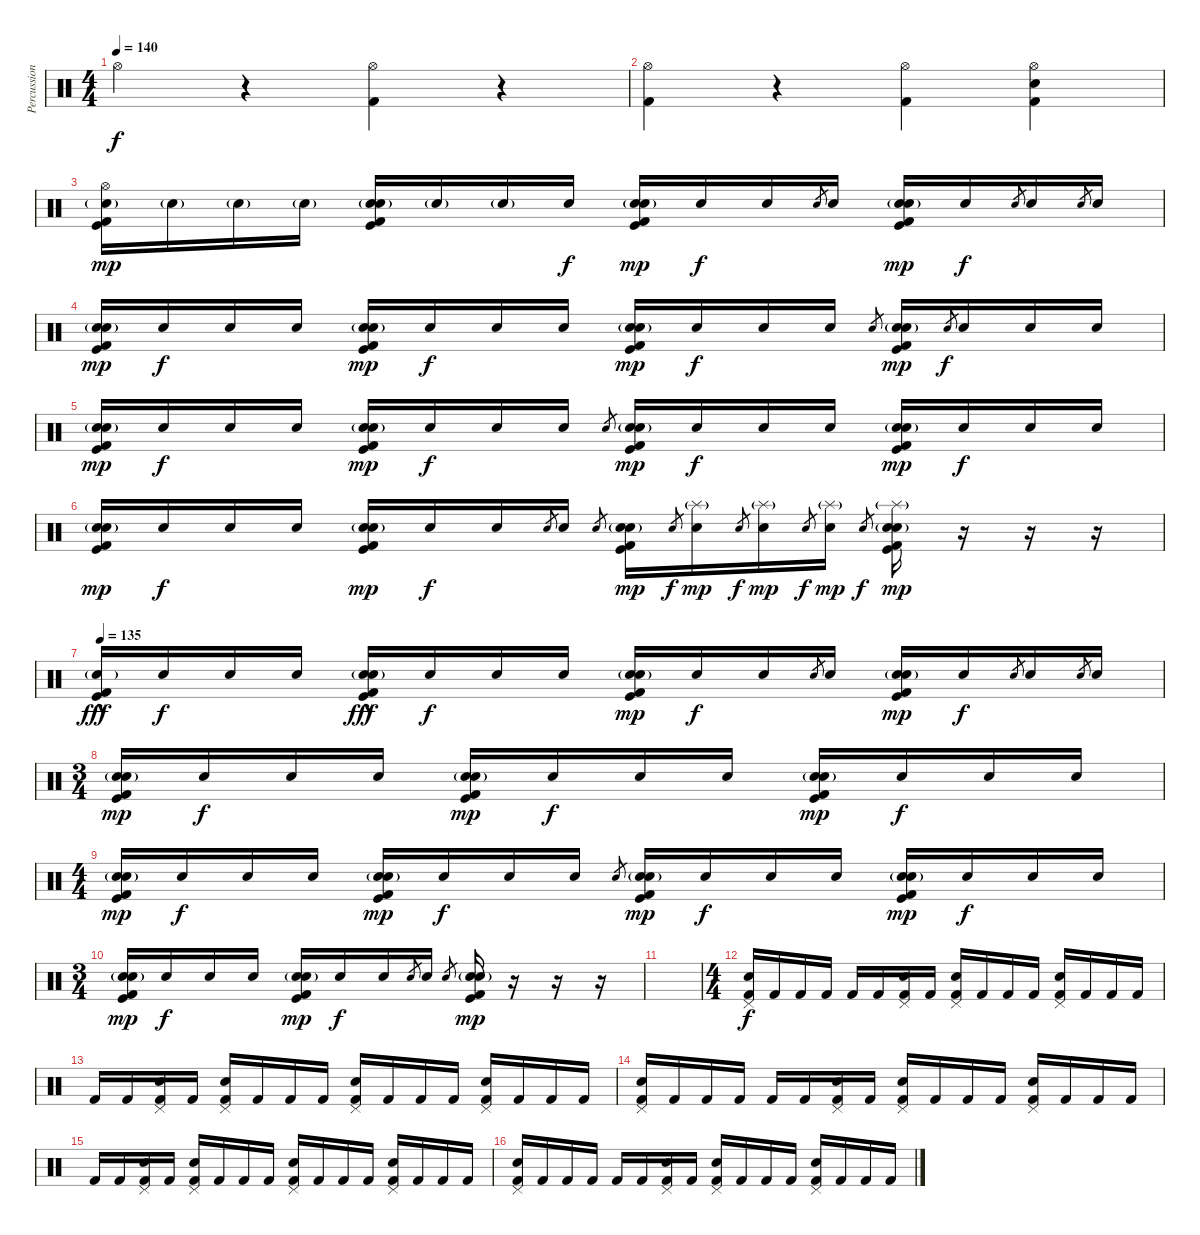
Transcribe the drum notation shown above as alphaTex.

\track ("Percussion" "Percussion") {instrument percussion}
\staff {score}
\articulation defaults
\ts (4 4)
\tempo 140
\clef neutral
\ks c "Hi-Hat (open)"{t}.4{dy f}
r.4 ("Hi-Hat (open)" "Kick (hit) 2").4 r.4 |
("Hi-Hat (open)" "Kick (hit) 2").4 r.4 ("Hi-Hat (open)" "Kick (hit) 2").4 ("Hi-Hat (open)" "Snare (hit) 2" "Kick (hit) 2").4 |
("Hi-Hat (open)" "Snare (hit) 2"{g} "Kick (hit)" "Kick (hit) 2").16{dy mp} "Electric Snare (hit)"{g}.16 "Electric Snare (hit)"{g}.16 "Electric Snare (hit)"{g}.16 ("Electric Snare (hit)"{g} "Snare (hit) 2"{g} "Kick (hit)" "Kick (hit) 2").16 "Electric Snare (hit)"{g}.16 "Electric Snare (hit)"{g}.16 "Electric Snare (hit)".16{dy f} ("Electric Snare (hit)" "Snare (hit) 2"{g} "Kick (hit)" "Kick (hit) 2").16{dy mp} "Electric Snare (hit)".16{dy f} "Electric Snare (hit)".16 "Electric Snare (hit)".8{gr} "Electric Snare (hit)".16 ("Electric Snare (hit)" "Snare (hit) 2"{g} "Kick (hit)" "Kick (hit) 2").16{dy mp} "Electric Snare (hit)".16{dy f} "Electric Snare (hit)".8{gr} "Electric Snare (hit)".16 "Electric Snare (hit)".8{gr} "Electric Snare (hit)".16 |
("Electric Snare (hit)" "Snare (hit) 2"{g} "Kick (hit)" "Kick (hit) 2").16{dy mp} "Electric Snare (hit)".16{dy f} "Electric Snare (hit)".16 "Electric Snare (hit)".16 ("Electric Snare (hit)" "Snare (hit) 2"{g} "Kick (hit)" "Kick (hit) 2").16{dy mp} "Electric Snare (hit)".16{dy f} "Electric Snare (hit)".16 "Electric Snare (hit)".16 ("Electric Snare (hit)" "Snare (hit) 2"{g} "Kick (hit)" "Kick (hit) 2").16{dy mp} "Electric Snare (hit)".16{dy f} "Electric Snare (hit)".16 "Electric Snare (hit)".16 "Electric Snare (hit)".8{gr} ("Electric Snare (hit)" "Snare (hit) 2"{g} "Kick (hit)" "Kick (hit) 2").16{dy mp} "Electric Snare (hit)".8{gr dy f} "Electric Snare (hit)".16 "Electric Snare (hit)".16 "Electric Snare (hit)".16 |
("Electric Snare (hit)" "Snare (hit) 2"{g} "Kick (hit)" "Kick (hit) 2").16{dy mp} "Electric Snare (hit)".16{dy f} "Electric Snare (hit)".16 "Electric Snare (hit)".16 ("Electric Snare (hit)" "Snare (hit) 2"{g} "Kick (hit)" "Kick (hit) 2").16{dy mp} "Electric Snare (hit)".16{dy f} "Electric Snare (hit)".16 "Electric Snare (hit)".16 "Electric Snare (hit)".8{gr} ("Electric Snare (hit)" "Snare (hit) 2"{g} "Kick (hit)" "Kick (hit) 2").16{dy mp} "Electric Snare (hit)".16{dy f} "Electric Snare (hit)".16 "Electric Snare (hit)".16 ("Electric Snare (hit)" "Snare (hit) 2"{g} "Kick (hit)" "Kick (hit) 2").16{dy mp} "Electric Snare (hit)".16{dy f} "Electric Snare (hit)".16 "Electric Snare (hit)".16 |
("Electric Snare (hit)" "Snare (hit) 2"{g} "Kick (hit)" "Kick (hit) 2").16{dy mp} "Electric Snare (hit)".16{dy f} "Electric Snare (hit)".16 "Electric Snare (hit)".16 ("Electric Snare (hit)" "Snare (hit) 2"{g} "Kick (hit)" "Kick (hit) 2").16{dy mp} "Electric Snare (hit)".16{dy f} "Electric Snare (hit)".16 "Electric Snare (hit)".8{gr} "Electric Snare (hit)".16 "Electric Snare (hit)".8{gr} ("Electric Snare (hit)" "Snare (hit) 2"{g} "Kick (hit)" "Kick (hit) 2").16{dy mp} "Electric Snare (hit)".8{gr dy f} ("Splash (hit)"{g} "Electric Snare (hit)").16{dy mp} "Electric Snare (hit)".8{gr dy f} ("Splash (hit)"{g} "Electric Snare (hit)").16{dy mp} "Electric Snare (hit)".8{gr dy f} ("Splash (hit)"{g} "Electric Snare (hit)").16{dy mp} "Electric Snare (hit)".8{gr dy f} ("Splash (hit)"{g} "Electric Snare (hit)" "Snare (hit) 2"{g} "Kick (hit)" "Kick (hit) 2").16{dy mp} r.16 r.16 r.16 |
\tempo 135
("Snare (hit) 2"{g} "Kick (hit)" "Kick (hit) 2"{hac}).16{dy fff} "Electric Snare (hit)".16{dy f} "Electric Snare (hit)".16 "Electric Snare (hit)".16 ("Electric Snare (hit)" "Snare (hit) 2"{g} "Kick (hit)" "Kick (hit) 2"{hac}).16{dy fff} "Electric Snare (hit)".16{dy f} "Electric Snare (hit)".16 "Electric Snare (hit)".16 ("Electric Snare (hit)" "Snare (hit) 2"{g} "Kick (hit)" "Kick (hit) 2").16{dy mp} "Electric Snare (hit)".16{dy f} "Electric Snare (hit)".16 "Electric Snare (hit)".8{gr} "Electric Snare (hit)".16 ("Electric Snare (hit)" "Snare (hit) 2"{g} "Kick (hit)" "Kick (hit) 2").16{dy mp} "Electric Snare (hit)".16{dy f} "Electric Snare (hit)".8{gr} "Electric Snare (hit)".16 "Electric Snare (hit)".8{gr} "Electric Snare (hit)".16 |
\ts (3 4)
("Electric Snare (hit)" "Snare (hit) 2"{g} "Kick (hit)" "Kick (hit) 2").16{dy mp} "Electric Snare (hit)".16{dy f} "Electric Snare (hit)".16 "Electric Snare (hit)".16 ("Electric Snare (hit)" "Snare (hit) 2"{g} "Kick (hit)" "Kick (hit) 2").16{dy mp} "Electric Snare (hit)".16{dy f} "Electric Snare (hit)".16 "Electric Snare (hit)".16 ("Electric Snare (hit)" "Snare (hit) 2"{g} "Kick (hit)" "Kick (hit) 2").16{dy mp} "Electric Snare (hit)".16{dy f} "Electric Snare (hit)".16 "Electric Snare (hit)".16 |
\ts (4 4)
("Electric Snare (hit)" "Snare (hit) 2"{g} "Kick (hit)" "Kick (hit) 2").16{dy mp} "Electric Snare (hit)".16{dy f} "Electric Snare (hit)".16 "Electric Snare (hit)".16 ("Electric Snare (hit)" "Snare (hit) 2"{g} "Kick (hit)" "Kick (hit) 2").16{dy mp} "Electric Snare (hit)".16{dy f} "Electric Snare (hit)".16 "Electric Snare (hit)".16 "Electric Snare (hit)".8{gr} ("Electric Snare (hit)" "Snare (hit) 2"{g} "Kick (hit)" "Kick (hit) 2").16{dy mp} "Electric Snare (hit)".16{dy f} "Electric Snare (hit)".16 "Electric Snare (hit)".16 ("Electric Snare (hit)" "Snare (hit) 2"{g} "Kick (hit)" "Kick (hit) 2").16{dy mp} "Electric Snare (hit)".16{dy f} "Electric Snare (hit)".16 "Electric Snare (hit)".16 |
\ts (3 4)
("Electric Snare (hit)" "Snare (hit) 2"{g} "Kick (hit)" "Kick (hit) 2").16{dy mp} "Electric Snare (hit)".16{dy f} "Electric Snare (hit)".16 "Electric Snare (hit)".16 ("Electric Snare (hit)" "Snare (hit) 2"{g} "Kick (hit)" "Kick (hit) 2").16{dy mp} "Electric Snare (hit)".16{dy f} "Electric Snare (hit)".16 "Electric Snare (hit)".8{gr} "Electric Snare (hit)".16 "Electric Snare (hit)".8{gr} ("Electric Snare (hit)" "Snare (hit) 2"{g} "Kick (hit)" "Kick (hit) 2").16{dy mp} r.16 r.16 r.16 |
|
\ts (4 4)
("Pedal Hi-Hat (hit)" "Electric Snare (hit)" "Kick (hit) 2").16{dy f} "Kick (hit) 2".16 "Kick (hit) 2".16 "Kick (hit) 2".16 "Kick (hit) 2".16 "Kick (hit) 2".16 ("Pedal Hi-Hat (hit)" "Electric Snare (hit)" "Kick (hit) 2").16 "Kick (hit) 2".16 ("Pedal Hi-Hat (hit)" "Electric Snare (hit)" "Kick (hit) 2").16 "Kick (hit) 2".16 "Kick (hit) 2".16 "Kick (hit) 2".16 ("Pedal Hi-Hat (hit)" "Electric Snare (hit)" "Kick (hit) 2").16 "Kick (hit) 2".16 "Kick (hit) 2".16 "Kick (hit) 2".16 |
"Kick (hit) 2".16 "Kick (hit) 2".16 ("Pedal Hi-Hat (hit)" "Electric Snare (hit)" "Kick (hit) 2").16 "Kick (hit) 2".16 ("Pedal Hi-Hat (hit)" "Electric Snare (hit)" "Kick (hit) 2").16 "Kick (hit) 2".16 "Kick (hit) 2".16 "Kick (hit) 2".16 ("Pedal Hi-Hat (hit)" "Electric Snare (hit)" "Kick (hit) 2").16 "Kick (hit) 2".16 "Kick (hit) 2".16 "Kick (hit) 2".16 ("Pedal Hi-Hat (hit)" "Electric Snare (hit)" "Kick (hit) 2").16 "Kick (hit) 2".16 "Kick (hit) 2".16 "Kick (hit) 2".16 |
("Pedal Hi-Hat (hit)" "Electric Snare (hit)" "Kick (hit) 2").16 "Kick (hit) 2".16 "Kick (hit) 2".16 "Kick (hit) 2".16 "Kick (hit) 2".16 "Kick (hit) 2".16 ("Pedal Hi-Hat (hit)" "Electric Snare (hit)" "Kick (hit) 2").16 "Kick (hit) 2".16 ("Pedal Hi-Hat (hit)" "Electric Snare (hit)" "Kick (hit) 2").16 "Kick (hit) 2".16 "Kick (hit) 2".16 "Kick (hit) 2".16 ("Pedal Hi-Hat (hit)" "Electric Snare (hit)" "Kick (hit) 2").16 "Kick (hit) 2".16 "Kick (hit) 2".16 "Kick (hit) 2".16 |
"Kick (hit) 2".16 "Kick (hit) 2".16 ("Pedal Hi-Hat (hit)" "Electric Snare (hit)" "Kick (hit) 2").16 "Kick (hit) 2".16 ("Pedal Hi-Hat (hit)" "Electric Snare (hit)" "Kick (hit) 2").16 "Kick (hit) 2".16 "Kick (hit) 2".16 "Kick (hit) 2".16 ("Pedal Hi-Hat (hit)" "Electric Snare (hit)" "Kick (hit) 2").16 "Kick (hit) 2".16 "Kick (hit) 2".16 "Kick (hit) 2".16 ("Pedal Hi-Hat (hit)" "Electric Snare (hit)" "Kick (hit) 2").16 "Kick (hit) 2".16 "Kick (hit) 2".16 "Kick (hit) 2".16 |
("Pedal Hi-Hat (hit)" "Electric Snare (hit)" "Kick (hit) 2").16 "Kick (hit) 2".16 "Kick (hit) 2".16 "Kick (hit) 2".16 "Kick (hit) 2".16 "Kick (hit) 2".16 ("Pedal Hi-Hat (hit)" "Electric Snare (hit)" "Kick (hit) 2").16 "Kick (hit) 2".16 ("Pedal Hi-Hat (hit)" "Electric Snare (hit)" "Kick (hit) 2").16 "Kick (hit) 2".16 "Kick (hit) 2".16 "Kick (hit) 2".16 ("Pedal Hi-Hat (hit)" "Electric Snare (hit)" "Kick (hit) 2").16 "Kick (hit) 2".16 "Kick (hit) 2".16 "Kick (hit) 2".16
